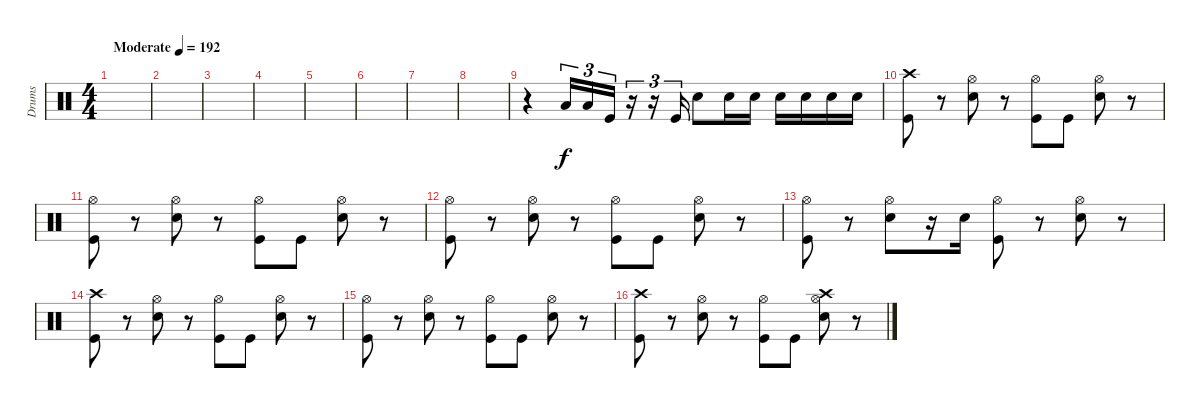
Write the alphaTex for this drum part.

\track ("Drums" "Drums") {instrument percussion}
\staff {score}
\articulation defaults
\ts (4 4)
\tempo (192 "Moderate")
\clef neutral
\ks c
|
|
|
|
|
|
|
|
r.4 "Low Tom (hit)".16{tu (3 2)} "Low Tom (hit)".16{tu (3 2)} "Kick (hit)".16{tu (3 2)} r.16{tu (3 2)} r.16{tu (3 2)} "Kick (hit)".16{tu (3 2)} "Electric Snare (hit)".8 "Electric Snare (hit)".16 "Electric Snare (hit)".16 "Electric Snare (hit)".16 "Electric Snare (hit)".16 "Electric Snare (hit)".16 "Electric Snare (hit)".16 |
("Kick (hit)" "Crash high (hit)").8 r.8 ("Electric Snare (hit)" "Hi-Hat (open)").8 r.8 ("Kick (hit)" "Hi-Hat (open)").8 "Kick (hit)".8 ("Electric Snare (hit)" "Hi-Hat (open)").8 r.8 |
("Kick (hit)" "Hi-Hat (open)").8 r.8 ("Electric Snare (hit)" "Hi-Hat (open)").8 r.8 ("Kick (hit)" "Hi-Hat (open)").8 "Kick (hit)".8 ("Electric Snare (hit)" "Hi-Hat (open)").8 r.8 |
("Kick (hit)" "Hi-Hat (open)").8 r.8 ("Electric Snare (hit)" "Hi-Hat (open)").8 r.8 ("Kick (hit)" "Hi-Hat (open)").8 "Kick (hit)".8 ("Electric Snare (hit)" "Hi-Hat (open)").8 r.8 |
("Kick (hit)" "Hi-Hat (open)").8 r.8 ("Electric Snare (hit)" "Hi-Hat (open)").8 r.16 "Electric Snare (hit)".16 ("Kick (hit)" "Hi-Hat (open)").8 r.8 ("Electric Snare (hit)" "Hi-Hat (open)").8 r.8 |
("Kick (hit)" "Crash high (hit)").8 r.8 ("Electric Snare (hit)" "Hi-Hat (open)").8 r.8 ("Kick (hit)" "Hi-Hat (open)").8 "Kick (hit)".8 ("Electric Snare (hit)" "Hi-Hat (open)").8 r.8 |
("Kick (hit)" "Hi-Hat (open)").8 r.8 ("Electric Snare (hit)" "Hi-Hat (open)").8 r.8 ("Kick (hit)" "Hi-Hat (open)").8 "Kick (hit)".8 ("Electric Snare (hit)" "Hi-Hat (open)").8 r.8 |
("Kick (hit)" "Crash high (hit)").8 r.8 ("Electric Snare (hit)" "Hi-Hat (open)").8 r.8 ("Kick (hit)" "Hi-Hat (open)").8 "Kick (hit)".8 ("Electric Snare (hit)" "Hi-Hat (open)" "Crash high (hit)").8 r.8
